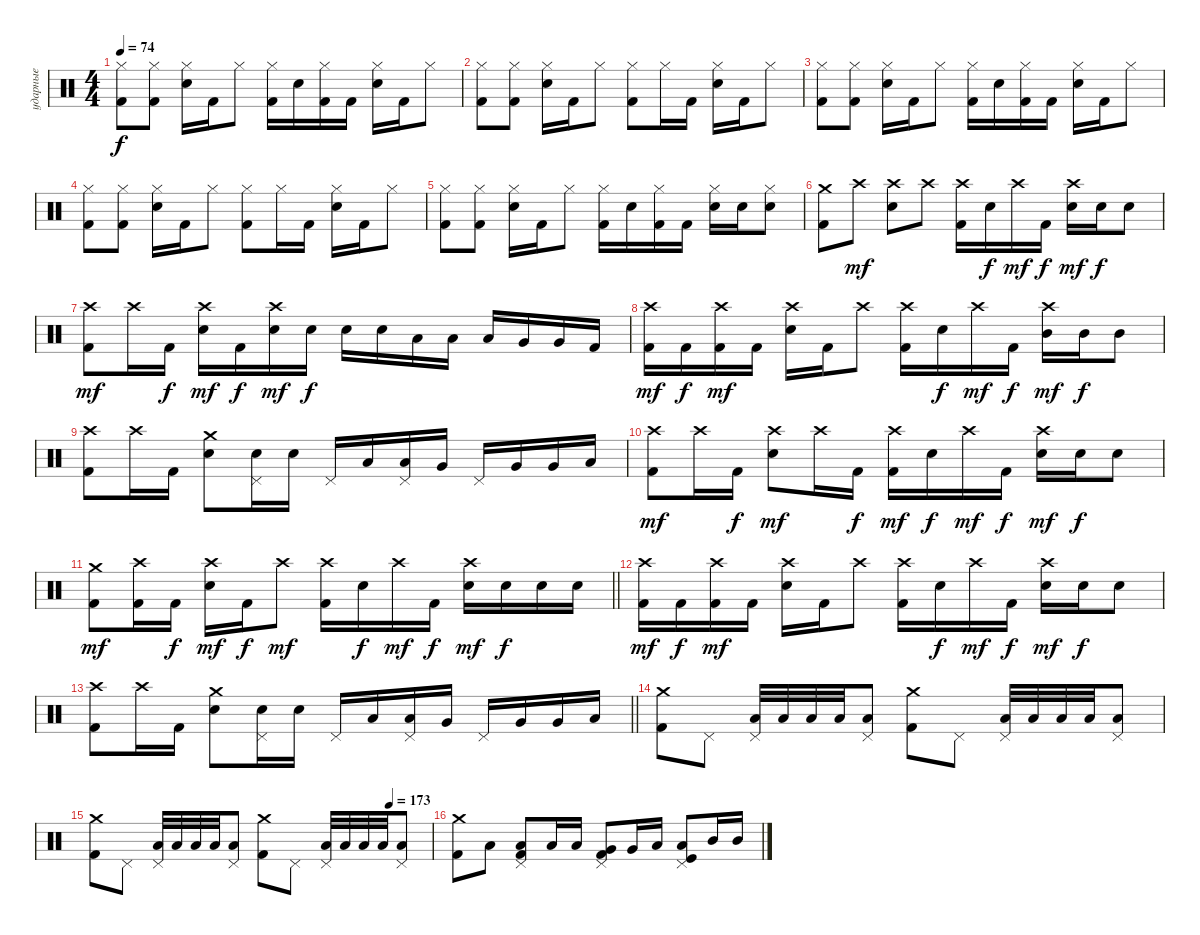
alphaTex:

\track ("ударные" "ударные") {instrument percussion}
\staff {score}
\articulation defaults
\ts (4 4)
\tempo 74
\clef neutral
\ks aminor
("Kick (hit) 2" "Hi-Hat (closed)").8{dy f} ("Hi-Hat (closed)" "Kick (hit) 2").8 ("Snare (hit) 2" "Hi-Hat (closed)").16 "Kick (hit) 2".16 "Hi-Hat (closed)".8 ("Kick (hit) 2" "Hi-Hat (closed)").16 "Snare (hit) 2".16 ("Kick (hit) 2" "Hi-Hat (closed)").16 "Kick (hit) 2".16 ("Snare (hit) 2" "Hi-Hat (closed)").16 "Kick (hit) 2".16 "Hi-Hat (closed)".8 |
("Kick (hit) 2" "Hi-Hat (closed)").8 ("Kick (hit) 2" "Hi-Hat (closed)").8 ("Snare (hit) 2" "Hi-Hat (closed)").16 "Kick (hit) 2".16 "Hi-Hat (closed)".8 ("Kick (hit) 2" "Hi-Hat (closed)").8 "Hi-Hat (closed)".16 "Kick (hit) 2".16 ("Snare (hit) 2" "Hi-Hat (closed)").16 "Kick (hit) 2".16 "Hi-Hat (closed)".8 |
("Kick (hit) 2" "Hi-Hat (closed)").8 ("Hi-Hat (closed)" "Kick (hit) 2").8 ("Snare (hit) 2" "Hi-Hat (closed)").16 "Kick (hit) 2".16 "Hi-Hat (closed)".8 ("Kick (hit) 2" "Hi-Hat (closed)").16 "Snare (hit) 2".16 ("Kick (hit) 2" "Hi-Hat (closed)").16 "Kick (hit) 2".16 ("Snare (hit) 2" "Hi-Hat (closed)").16 "Kick (hit) 2".16 "Hi-Hat (closed)".8 |
("Kick (hit) 2" "Hi-Hat (closed)").8 ("Kick (hit) 2" "Hi-Hat (closed)").8 ("Snare (hit) 2" "Hi-Hat (closed)").16 "Kick (hit) 2".16 "Hi-Hat (closed)".8 ("Kick (hit) 2" "Hi-Hat (closed)").8 "Hi-Hat (closed)".16 "Kick (hit) 2".16 ("Snare (hit) 2" "Hi-Hat (closed)").16 "Kick (hit) 2".16 "Hi-Hat (closed)".8 |
("Kick (hit) 2" "Hi-Hat (closed)").8 ("Hi-Hat (closed)" "Kick (hit) 2").8 ("Snare (hit) 2" "Hi-Hat (closed)").16 "Kick (hit) 2".16 "Hi-Hat (closed)".8 ("Kick (hit) 2" "Hi-Hat (closed)").16 "Snare (hit) 2".16 ("Kick (hit) 2" "Hi-Hat (closed)").16 "Kick (hit) 2".16 ("Snare (hit) 2" "Hi-Hat (closed)").16 "Snare (hit) 2".16 ("Hi-Hat (closed)" "Snare (hit) 2").8 |
("Kick (hit) 2" "Crash medium (hit)").8 "Crash high (hit)".8{dy mf} ("Snare (hit) 2" "Crash high (hit)").8 "Crash high (hit)".8 ("Kick (hit) 2" "Crash high (hit)").16 "Snare (hit) 2".16{dy f} "Crash high (hit)".16{dy mf} "Kick (hit) 2".16{dy f} ("Snare (hit) 2" "Crash high (hit)").16{dy mf} "Snare (hit) 2".16{dy f} "Snare (hit) 2".8 |
("Kick (hit) 2" "Crash high (hit)").8{dy mf} "Crash high (hit)".16 "Kick (hit) 2".16{dy f} ("Snare (hit) 2" "Crash high (hit)").16{dy mf} "Kick (hit) 2".16{dy f} ("Snare (hit) 2" "Crash high (hit)").16{dy mf} "Snare (hit) 2".16{dy f} "Snare (hit) 2".16 "Snare (hit) 2".16 "Low Tom (hit)".16 "Low Tom (hit)".16 "Low Tom (hit)".16 "Very Low Tom (hit)".16 "Very Low Tom (hit)".16 "Kick (hit) 2".16 |
("Kick (hit) 2" "Crash high (hit)").16{dy mf} "Kick (hit) 2".16{dy f} ("Crash high (hit)" "Kick (hit) 2").16{dy mf} "Kick (hit) 2".16 ("Crash high (hit)" "Snare (hit) 2").16 "Kick (hit) 2".16 "Crash high (hit)".8 ("Crash high (hit)" "Kick (hit) 2").16 "Snare (hit) 2".16{dy f} "Crash high (hit)".16{dy mf} "Kick (hit) 2".16{dy f} ("Crash high (hit)" "Mid Tom (hit)").16{dy mf} "Mid Tom (hit)".16{dy f} "Mid Tom (hit)".8 |
("Kick (hit) 2" "Crash high (hit)").8 "Crash high (hit)".16 "Kick (hit) 2".16 ("Snare (hit) 2" "Crash medium (hit)").8 ("Pedal Hi-Hat (hit)" "Snare (hit) 2").16 "Snare (hit) 2".16 "Pedal Hi-Hat (hit)".16 "Low Tom (hit)".16 ("Pedal Hi-Hat (hit)" "Low Tom (hit)").16 "Very Low Tom (hit)".16 "Pedal Hi-Hat (hit)".16 "Very Low Tom (hit)".16 "Very Low Tom (hit)".16 "Low Floor Tom (hit)".16 |
("Kick (hit) 2" "Crash high (hit)").8{dy mf} "Crash high (hit)".16 "Kick (hit) 2".16{dy f} ("Snare (hit) 2" "Crash high (hit)").8{dy mf} "Crash high (hit)".16 "Kick (hit) 2".16{dy f} ("Kick (hit) 2" "Crash high (hit)").16{dy mf} "Snare (hit) 2".16{dy f} "Crash high (hit)".16{dy mf} "Kick (hit) 2".16{dy f} ("Snare (hit) 2" "Crash high (hit)").16{dy mf} "Snare (hit) 2".16{dy f} "Snare (hit) 2".8 |
\barLineRight lightlight
("Kick (hit) 2" "Crash medium (hit)").8{dy mf} ("Crash high (hit)" "Kick (hit) 2").16 "Kick (hit) 2".16{dy f} ("Snare (hit) 2" "Crash high (hit)").16{dy mf} "Kick (hit) 2".16{dy f} "Crash high (hit)".8{dy mf} ("Kick (hit) 2" "Crash high (hit)").16 "Snare (hit) 2".16{dy f} "Crash high (hit)".16{dy mf} "Kick (hit) 2".16{dy f} ("Snare (hit) 2" "Crash high (hit)").16{dy mf} "Snare (hit) 2".16{dy f} "Snare (hit) 2".16 "Snare (hit) 2".16 |
\section ("" "")
("Kick (hit) 2" "Crash high (hit)").16{dy mf} "Kick (hit) 2".16{dy f} ("Crash high (hit)" "Kick (hit) 2").16{dy mf} "Kick (hit) 2".16 ("Crash high (hit)" "Snare (hit) 2").16 "Kick (hit) 2".16 "Crash high (hit)".8 ("Crash high (hit)" "Kick (hit) 2").16 "Snare (hit) 2".16{dy f} "Crash high (hit)".16{dy mf} "Kick (hit) 2".16{dy f} ("Snare (hit) 2" "Crash high (hit)").16{dy mf} "Snare (hit) 2".16{dy f} "Snare (hit) 2".8 |
\barLineRight lightlight
("Kick (hit) 2" "Crash high (hit)").8 "Crash high (hit)".16 "Kick (hit) 2".16 ("Snare (hit) 2" "Crash medium (hit)").8 ("Pedal Hi-Hat (hit)" "Snare (hit) 2").16 "Snare (hit) 2".16 "Pedal Hi-Hat (hit)".16 "Low Tom (hit)".16 ("Pedal Hi-Hat (hit)" "Low Tom (hit)").16 "Very Low Tom (hit)".16 "Pedal Hi-Hat (hit)".16 "Very Low Tom (hit)".16 "Very Low Tom (hit)".16 "Low Floor Tom (hit)".16 |
("Kick (hit) 2" "Crash medium (hit)").8 "Pedal Hi-Hat (hit)".8 ("Pedal Hi-Hat (hit)" "Low Tom (hit)").32 "Low Tom (hit)".32 "Low Tom (hit)".32 "Low Tom (hit)".32 ("Low Tom (hit)" "Pedal Hi-Hat (hit)").8 ("Kick (hit) 2" "Crash medium (hit)").8 "Pedal Hi-Hat (hit)".8 ("Pedal Hi-Hat (hit)" "Low Tom (hit)").32 "Low Tom (hit)".32 "Low Tom (hit)".32 "Low Tom (hit)".32 ("Low Tom (hit)" "Pedal Hi-Hat (hit)").8 |
\tempo (173 0.875)
("Kick (hit) 2" "Crash medium (hit)").8 "Pedal Hi-Hat (hit)".8 ("Pedal Hi-Hat (hit)" "Low Tom (hit)").32 "Low Tom (hit)".32 "Low Tom (hit)".32 "Low Tom (hit)".32 ("Low Tom (hit)" "Pedal Hi-Hat (hit)").8 ("Kick (hit) 2" "Crash medium (hit)").8 "Pedal Hi-Hat (hit)".8 ("Pedal Hi-Hat (hit)" "Low Tom (hit)").32 "Low Tom (hit)".32 "Low Tom (hit)".32 "Low Tom (hit)".32 ("Low Tom (hit)" "Pedal Hi-Hat (hit)").8 |
("Kick (hit) 2" "Crash medium (hit)").8 "Low Tom (hit)".8 ("Low Tom (hit)" "Kick (hit) 2" "Pedal Hi-Hat (hit)").8 "Low Tom (hit)".16 "Low Tom (hit)".16 ("Very Low Tom (hit)" "Kick (hit) 2" "Pedal Hi-Hat (hit)").8 "Very Low Tom (hit)".16 "Low Tom (hit)".16 ("Low Tom (hit)" "Kick (hit)" "Pedal Hi-Hat (hit)").8 "Mid Tom (hit)".16 "Mid Tom (hit)".16
